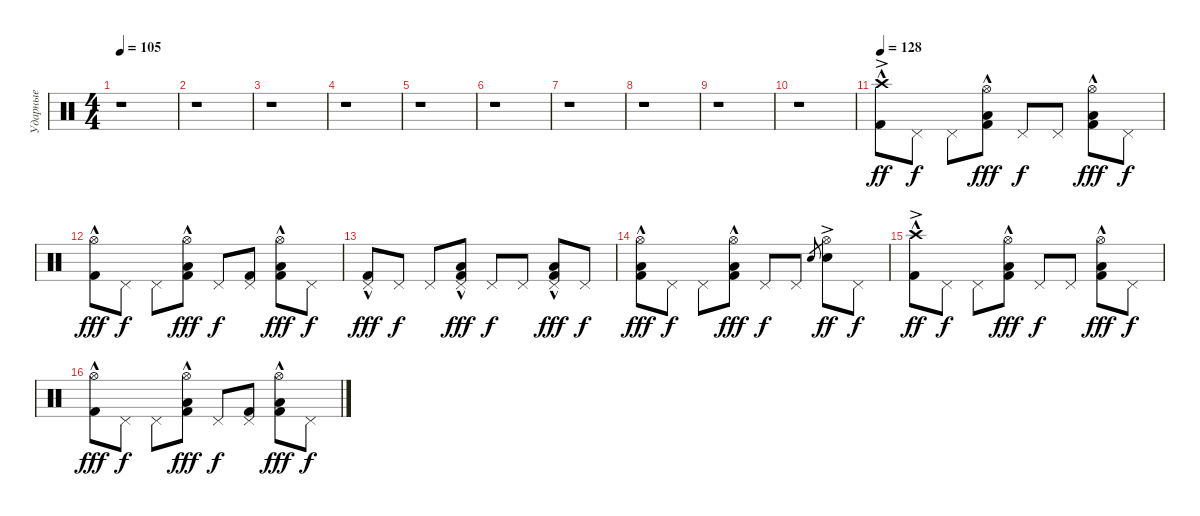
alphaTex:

\track ("Ударные" "Ударные") {instrument percussion}
\staff {score}
\articulation defaults
\ts (4 4)
\tempo 105
\clef neutral
\ks c
r.1{dy ff} |
r.1 |
r.1 |
r.1 |
r.1 |
r.1 |
r.1 |
r.1 |
r.1 |
r.1 |
\tempo 128
("Kick (hit) 2"{hac} "Crash high (hit)"{ac}).8 "Pedal Hi-Hat (hit)".8{dy f} "Pedal Hi-Hat (hit)".8 ("Kick (hit) 2"{hac} "Low Floor Tom (hit)" "Hi-Hat (open)").8{dy fff} "Pedal Hi-Hat (hit)".8{dy f} "Pedal Hi-Hat (hit)".8 ("Kick (hit) 2"{hac} "Low Floor Tom (hit)" "Hi-Hat (open)").8{dy fff} "Pedal Hi-Hat (hit)".8{dy f} |
("Kick (hit) 2"{hac} "Hi-Hat (open)").8{dy fff} "Pedal Hi-Hat (hit)".8{dy f} "Pedal Hi-Hat (hit)".8 ("Kick (hit) 2"{hac} "Low Floor Tom (hit)"{hac} "Hi-Hat (open)").8{dy fff} "Pedal Hi-Hat (hit)".8{dy f} ("Kick (hit) 2" "Pedal Hi-Hat (hit)").8 ("Kick (hit) 2"{hac} "Low Floor Tom (hit)"{hac} "Hi-Hat (open)").8{dy fff} "Pedal Hi-Hat (hit)".8{dy f} |
("Kick (hit) 2"{hac} "Pedal Hi-Hat (hit)").8{dy fff} "Pedal Hi-Hat (hit)".8{dy f} "Pedal Hi-Hat (hit)".8 ("Kick (hit) 2"{hac} "Low Floor Tom (hit)"{hac} "Pedal Hi-Hat (hit)").8{dy fff} "Pedal Hi-Hat (hit)".8{dy f} "Pedal Hi-Hat (hit)".8 ("Kick (hit) 2"{hac} "Low Floor Tom (hit)"{hac} "Pedal Hi-Hat (hit)").8{dy fff} "Pedal Hi-Hat (hit)".8{dy f} |
("Kick (hit) 2"{hac} "Low Floor Tom (hit)"{hac} "Hi-Hat (open)").8{dy fff} "Pedal Hi-Hat (hit)".8{dy f} "Pedal Hi-Hat (hit)".8 ("Kick (hit) 2"{hac} "Low Floor Tom (hit)"{hac} "Hi-Hat (open)").8{dy fff} "Pedal Hi-Hat (hit)".8{dy f} "Pedal Hi-Hat (hit)".8 "Snare (hit) 2".8{gr} ("Snare (hit) 2"{ac} "Hi-Hat (open)").8{dy ff} "Pedal Hi-Hat (hit)".8{dy f} |
("Kick (hit) 2"{hac} "Crash high (hit)"{ac}).8{dy ff} "Pedal Hi-Hat (hit)".8{dy f} "Pedal Hi-Hat (hit)".8 ("Kick (hit) 2"{hac} "Low Floor Tom (hit)"{hac} "Hi-Hat (open)").8{dy fff} "Pedal Hi-Hat (hit)".8{dy f} "Pedal Hi-Hat (hit)".8 ("Kick (hit) 2"{hac} "Low Floor Tom (hit)"{hac} "Hi-Hat (open)").8{dy fff} "Pedal Hi-Hat (hit)".8{dy f} |
("Kick (hit) 2"{hac} "Hi-Hat (open)").8{dy fff} "Pedal Hi-Hat (hit)".8{dy f} "Pedal Hi-Hat (hit)".8 ("Kick (hit) 2"{hac} "Low Floor Tom (hit)"{hac} "Hi-Hat (open)").8{dy fff} "Pedal Hi-Hat (hit)".8{dy f} ("Kick (hit) 2" "Pedal Hi-Hat (hit)").8 ("Kick (hit) 2"{hac} "Low Floor Tom (hit)"{hac} "Hi-Hat (open)").8{dy fff} "Pedal Hi-Hat (hit)".8{dy f}
